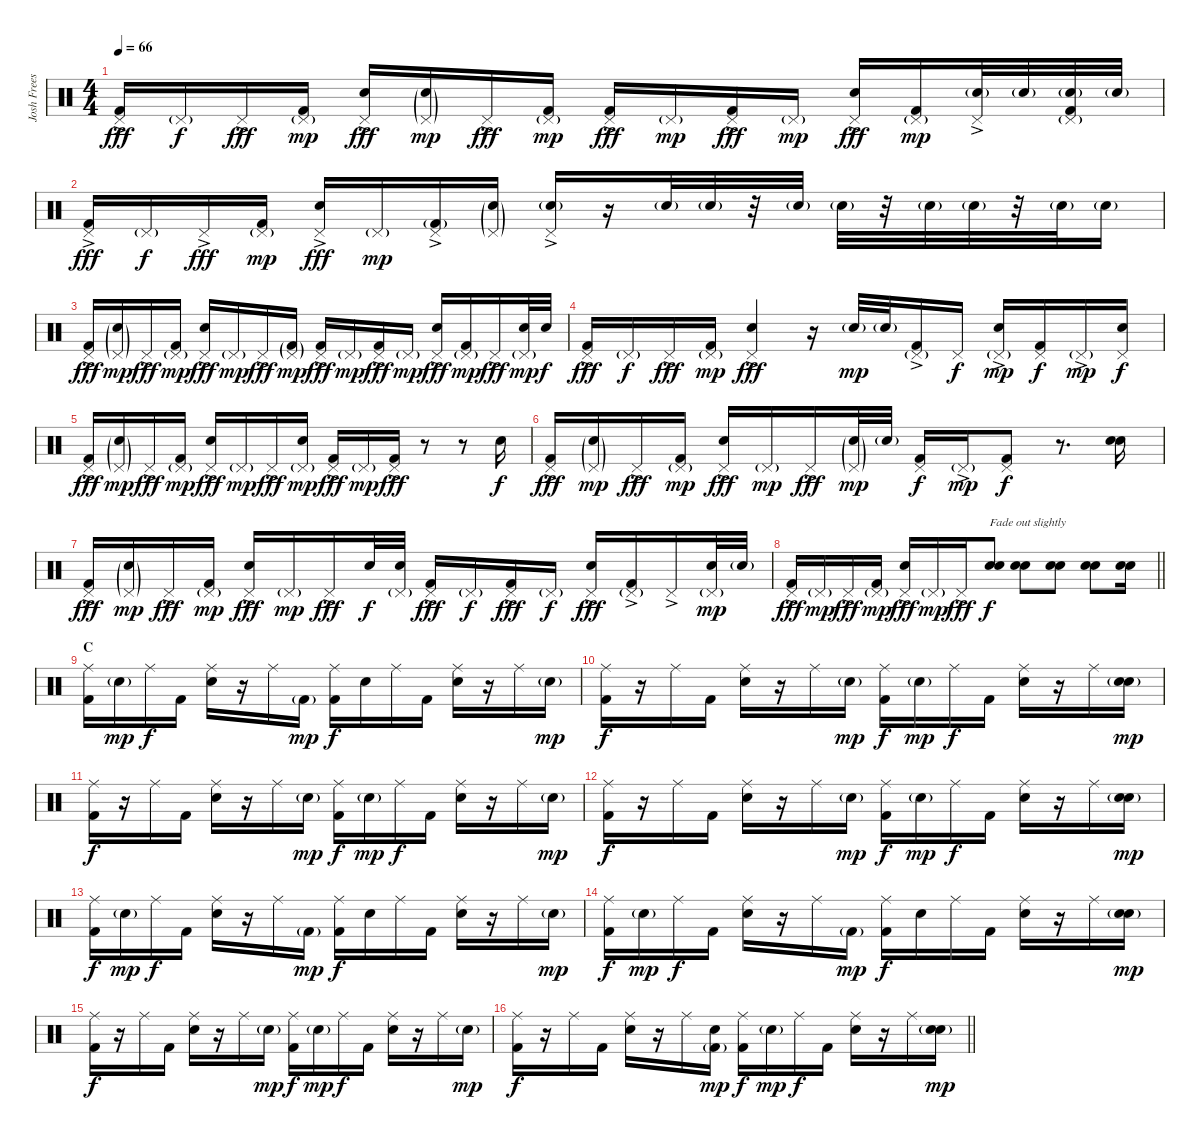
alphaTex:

\track ("Josh Freese - Drums" "Josh Frees") {instrument percussion}
\staff {score}
\articulation defaults
\ts (4 4)
\tempo 66
\clef neutral
\ks c
("Pedal Hi-Hat (hit)"{ac} "Kick (hit) 2").16{dy fff} "Pedal Hi-Hat (hit)"{g}.16{dy f} "Pedal Hi-Hat (hit)"{ac}.16{dy fff} ("Pedal Hi-Hat (hit)"{g} "Kick (hit) 2").16{dy mp} ("Pedal Hi-Hat (hit)"{ac} "Electric Snare (hit)").16{dy fff} ("Pedal Hi-Hat (hit)"{g} "Electric Snare (hit)"{g}).16{dy mp} "Pedal Hi-Hat (hit)"{ac}.16{dy fff} ("Pedal Hi-Hat (hit)"{g} "Kick (hit) 2").16{dy mp} ("Pedal Hi-Hat (hit)"{ac} "Kick (hit) 2").16{dy fff} "Pedal Hi-Hat (hit)"{g}.16{dy mp} ("Pedal Hi-Hat (hit)"{ac} "Kick (hit) 2").16{dy fff} "Pedal Hi-Hat (hit)"{g}.16{dy mp} ("Pedal Hi-Hat (hit)"{ac} "Electric Snare (hit)").16{dy fff} ("Pedal Hi-Hat (hit)"{g} "Kick (hit) 2").16{dy mp} ("Pedal Hi-Hat (hit)"{ac} "Electric Snare (hit)"{g}).32 "Electric Snare (hit)"{g}.32 ("Pedal Hi-Hat (hit)"{g} "Electric Snare (hit)"{g} "Kick (hit) 2").32 "Electric Snare (hit)"{g}.32 |
("Pedal Hi-Hat (hit)"{ac} "Kick (hit) 2").16{dy fff} "Pedal Hi-Hat (hit)"{g}.16{dy f} "Pedal Hi-Hat (hit)"{ac}.16{dy fff} ("Pedal Hi-Hat (hit)"{g} "Kick (hit) 2").16{dy mp} ("Pedal Hi-Hat (hit)"{ac} "Electric Snare (hit)").16{dy fff} "Pedal Hi-Hat (hit)"{g}.16{dy mp} ("Pedal Hi-Hat (hit)"{ac} "Kick (hit) 2"{g}).16 ("Pedal Hi-Hat (hit)"{g} "Electric Snare (hit)"{g}).16 ("Pedal Hi-Hat (hit)"{ac} "Electric Snare (hit)"{g}).16 r.16 "Electric Snare (hit)"{g}.32{volume 13 balance 16} "Electric Snare (hit)"{g}.32 r.32 "Electric Snare (hit)"{g}.32{volume 11 balance 0} "Electric Snare (hit)"{g}.32 r.32 "Electric Snare (hit)"{g}.32{volume 9 balance 16} "Electric Snare (hit)"{g}.32 r.32 "Electric Snare (hit)"{g}.32{volume 8 balance 0} "Electric Snare (hit)"{g}.16 |
("Pedal Hi-Hat (hit)"{ac} "Kick (hit) 2").16{dy fff volume 13 balance 8} ("Pedal Hi-Hat (hit)"{g} "Electric Snare (hit)"{g}).16{dy mp} "Pedal Hi-Hat (hit)"{ac}.16{dy fff} ("Pedal Hi-Hat (hit)"{g} "Kick (hit) 2").16{dy mp} ("Pedal Hi-Hat (hit)"{ac} "Electric Snare (hit)").16{dy fff} "Pedal Hi-Hat (hit)"{g}.16{dy mp} "Pedal Hi-Hat (hit)"{ac}.16{dy fff} ("Pedal Hi-Hat (hit)"{g} "Kick (hit) 2"{g}).16{dy mp} ("Pedal Hi-Hat (hit)"{ac} "Kick (hit) 2").16{dy fff} "Pedal Hi-Hat (hit)"{g}.16{dy mp} ("Pedal Hi-Hat (hit)"{ac} "Kick (hit) 2").16{dy fff} "Pedal Hi-Hat (hit)"{g}.16{dy mp} ("Pedal Hi-Hat (hit)"{ac} "Electric Snare (hit)").16{dy fff} ("Pedal Hi-Hat (hit)"{g} "Kick (hit) 2").16{dy mp} "Pedal Hi-Hat (hit)"{ac}.16{dy fff} ("Pedal Hi-Hat (hit)"{g} "Electric Snare (hit)").32{dy mp} "Electric Snare (hit)".32{dy f} |
("Pedal Hi-Hat (hit)"{ac} "Kick (hit) 2").16{dy fff} "Pedal Hi-Hat (hit)"{g}.16{dy f} "Pedal Hi-Hat (hit)"{ac}.16{dy fff} ("Pedal Hi-Hat (hit)"{g} "Kick (hit) 2").16{dy mp} ("Pedal Hi-Hat (hit)"{ac} "Electric Snare (hit)").4{dy fff} r.16 "Electric Snare (hit)"{g}.32{dy mp} "Electric Snare (hit)"{g}.32 ("Pedal Hi-Hat (hit)"{g ac} "Kick (hit) 2").16 "Pedal Hi-Hat (hit)".16{dy f} ("Pedal Hi-Hat (hit)"{g ac} "Electric Snare (hit)").16{dy mp} ("Pedal Hi-Hat (hit)" "Kick (hit) 2").16{dy f} "Pedal Hi-Hat (hit)"{g ac}.16{dy mp} ("Pedal Hi-Hat (hit)" "Snare (hit) 2").16{dy f} |
("Pedal Hi-Hat (hit)"{ac} "Kick (hit) 2").16{dy fff} ("Pedal Hi-Hat (hit)"{g} "Electric Snare (hit)"{g}).16{dy mp} "Pedal Hi-Hat (hit)"{ac}.16{dy fff} ("Pedal Hi-Hat (hit)"{g} "Kick (hit) 2").16{dy mp} ("Pedal Hi-Hat (hit)"{ac} "Electric Snare (hit)").16{dy fff} "Pedal Hi-Hat (hit)"{g}.16{dy mp} "Pedal Hi-Hat (hit)"{ac}.16{dy fff} ("Pedal Hi-Hat (hit)"{g} "Snare (hit) 2").16{dy mp} ("Pedal Hi-Hat (hit)"{ac} "Kick (hit) 2").16{dy fff} "Pedal Hi-Hat (hit)"{g}.16{dy mp} ("Pedal Hi-Hat (hit)"{ac} "Kick (hit) 2").16{dy fff} r.8 r.8 "Snare (hit) 2".16{dy f} |
("Pedal Hi-Hat (hit)"{ac} "Kick (hit) 2").16{dy fff} ("Pedal Hi-Hat (hit)"{g} "Electric Snare (hit)"{g}).16{dy mp} "Pedal Hi-Hat (hit)"{ac}.16{dy fff} ("Pedal Hi-Hat (hit)"{g} "Kick (hit) 2").16{dy mp} ("Pedal Hi-Hat (hit)"{ac} "Electric Snare (hit)").16{dy fff} "Pedal Hi-Hat (hit)"{g}.16{dy mp} "Pedal Hi-Hat (hit)"{ac}.16{dy fff} ("Pedal Hi-Hat (hit)"{g} "Electric Snare (hit)"{g}).32{dy mp} "Electric Snare (hit)"{g}.32 ("Pedal Hi-Hat (hit)" "Kick (hit) 2").16{dy f} "Pedal Hi-Hat (hit)"{g ac}.16{dy mp} ("Pedal Hi-Hat (hit)" "Kick (hit) 2").8{dy f} r.8{d} ("Electric Snare (hit)" "Snare (hit) 2").16 |
("Pedal Hi-Hat (hit)"{ac} "Kick (hit) 2").16{dy fff} ("Pedal Hi-Hat (hit)"{g} "Electric Snare (hit)"{g}).16{dy mp} "Pedal Hi-Hat (hit)"{ac}.16{dy fff} ("Pedal Hi-Hat (hit)"{g} "Kick (hit) 2").16{dy mp} ("Pedal Hi-Hat (hit)"{ac} "Electric Snare (hit)").16{dy fff} "Pedal Hi-Hat (hit)"{g}.16{dy mp} "Pedal Hi-Hat (hit)"{ac}.16{dy fff} "Electric Snare (hit)".32{dy f} ("Pedal Hi-Hat (hit)"{g} "Electric Snare (hit)").32 ("Pedal Hi-Hat (hit)"{ac} "Kick (hit) 2").16{dy fff} "Pedal Hi-Hat (hit)"{g}.16{dy f} ("Pedal Hi-Hat (hit)"{ac} "Kick (hit) 2").16{dy fff} "Pedal Hi-Hat (hit)"{g}.16{dy f} ("Pedal Hi-Hat (hit)"{ac} "Electric Snare (hit)").16{dy fff} ("Pedal Hi-Hat (hit)"{g} "Kick (hit) 2"{ac}).16 "Pedal Hi-Hat (hit)"{ac}.16 ("Pedal Hi-Hat (hit)"{g} "Electric Snare (hit)").32{dy mp} "Electric Snare (hit)"{g}.32 |
\barLineRight lightlight
("Pedal Hi-Hat (hit)"{ac} "Kick (hit) 2").16{dy fff} "Pedal Hi-Hat (hit)"{g}.16{dy mp} "Pedal Hi-Hat (hit)"{ac}.16{dy fff} ("Pedal Hi-Hat (hit)"{g} "Kick (hit) 2").16{dy mp} ("Pedal Hi-Hat (hit)"{ac} "Electric Snare (hit)").16{dy fff} "Pedal Hi-Hat (hit)"{g}.16{dy mp} "Pedal Hi-Hat (hit)"{ac}.16{dy fff} ("Snare (hit) 2" "Electric Snare (hit)").8{txt "Fade out slightly" dy f volume 6} ("Snare (hit) 2" "Electric Snare (hit)").8 ("Snare (hit) 2" "Electric Snare (hit)").8 ("Snare (hit) 2" "Electric Snare (hit)").8 ("Snare (hit) 2" "Electric Snare (hit)").16 |
\section ("" "C")
("Ride (middle)" "Kick (hit) 2").16{volume 16} "Electric Snare (hit)"{g}.16{dy mp} "Ride (middle)".16{dy f} "Kick (hit) 2".16 ("Ride (middle)" "Electric Snare (hit)").16 r.16 "Ride (middle)".16 "Kick (hit) 2"{g}.16{dy mp} ("Ride (middle)" "Kick (hit) 2").16{dy f} "Electric Snare (hit)".16 "Ride (middle)".16 "Kick (hit) 2".16 ("Ride (middle)" "Electric Snare (hit)").16 r.16 "Ride (middle)".16 "Snare (hit) 2"{g}.16{dy mp} |
("Ride (middle)" "Kick (hit) 2").16{dy f} r.16 "Ride (middle)".16 "Kick (hit) 2".16 ("Ride (middle)" "Electric Snare (hit)").16 r.16 "Ride (middle)".16 "Electric Snare (hit)"{g}.16{dy mp} ("Ride (middle)" "Kick (hit) 2").16{dy f} "Electric Snare (hit)"{g}.16{dy mp} "Ride (middle)".16{dy f} "Kick (hit) 2".16 ("Ride (middle)" "Electric Snare (hit)").16 r.16 "Ride (middle)".16 ("Snare (hit) 2"{g} "Electric Snare (hit)"{g}).16{dy mp} |
("Ride (middle)" "Kick (hit) 2").16{dy f} r.16 "Ride (middle)".16 "Kick (hit) 2".16 ("Ride (middle)" "Electric Snare (hit)").16 r.16 "Ride (middle)".16 "Snare (hit) 2"{g}.16{dy mp} ("Ride (middle)" "Kick (hit) 2").16{dy f} "Electric Snare (hit)"{g}.16{dy mp} "Ride (middle)".16{dy f} "Kick (hit) 2".16 ("Ride (middle)" "Electric Snare (hit)").16 r.16 "Ride (middle)".16 "Snare (hit) 2"{g}.16{dy mp} |
("Ride (middle)" "Kick (hit) 2").16{dy f} r.16 "Ride (middle)".16 "Kick (hit) 2".16 ("Ride (middle)" "Electric Snare (hit)").16 r.16 "Ride (middle)".16 "Electric Snare (hit)"{g}.16{dy mp} ("Ride (middle)" "Kick (hit) 2").16{dy f} "Electric Snare (hit)"{g}.16{dy mp} "Ride (middle)".16{dy f} "Kick (hit) 2".16 ("Ride (middle)" "Electric Snare (hit)").16 r.16 "Ride (middle)".16 ("Snare (hit) 2"{g} "Electric Snare (hit)"{g}).16{dy mp} |
("Ride (middle)" "Kick (hit) 2").16{dy f} "Electric Snare (hit)"{g}.16{dy mp} "Ride (middle)".16{dy f} "Kick (hit) 2".16 ("Ride (middle)" "Electric Snare (hit)").16 r.16 "Ride (middle)".16 "Kick (hit) 2"{g}.16{dy mp} ("Ride (middle)" "Kick (hit) 2").16{dy f} "Electric Snare (hit)".16 "Ride (middle)".16 "Kick (hit) 2".16 ("Ride (middle)" "Electric Snare (hit)").16 r.16 "Ride (middle)".16 "Snare (hit) 2"{g}.16{dy mp} |
("Ride (middle)" "Kick (hit) 2").16{dy f} "Electric Snare (hit)"{g}.16{dy mp} "Ride (middle)".16{dy f} "Kick (hit) 2".16 ("Ride (middle)" "Electric Snare (hit)").16 r.16 "Ride (middle)".16 "Kick (hit) 2"{g}.16{dy mp} ("Ride (middle)" "Kick (hit) 2").16{dy f} "Electric Snare (hit)".16 "Ride (middle)".16 "Kick (hit) 2".16 ("Ride (middle)" "Electric Snare (hit)").16 r.16 "Ride (middle)".16 ("Snare (hit) 2"{g} "Electric Snare (hit)"{g}).16{dy mp} |
("Ride (middle)" "Kick (hit) 2").16{dy f} r.16 "Ride (middle)".16 "Kick (hit) 2".16 ("Ride (middle)" "Electric Snare (hit)").16 r.16 "Ride (middle)".16 "Electric Snare (hit)"{g}.16{dy mp} ("Ride (middle)" "Kick (hit) 2").16{dy f} "Electric Snare (hit)"{g}.16{dy mp} "Ride (middle)".16{dy f} "Kick (hit) 2".16 ("Ride (middle)" "Electric Snare (hit)").16 r.16 "Ride (middle)".16 "Snare (hit) 2"{g}.16{dy mp} |
\barLineRight lightlight
("Ride (middle)" "Kick (hit) 2").16{dy f} r.16 "Ride (middle)".16 "Kick (hit) 2".16 ("Ride (middle)" "Electric Snare (hit)").16 r.16 "Ride (middle)".16 ("Snare (hit) 2" "Kick (hit) 2"{g}).16{dy mp} ("Ride (middle)" "Kick (hit) 2").16{dy f} "Electric Snare (hit)"{g}.16{dy mp} "Ride (middle)".16{dy f} "Kick (hit) 2".16 ("Ride (middle)" "Electric Snare (hit)").16 r.16 "Ride (middle)".16 ("Snare (hit) 2"{g} "Electric Snare (hit)"{g}).16{dy mp}
